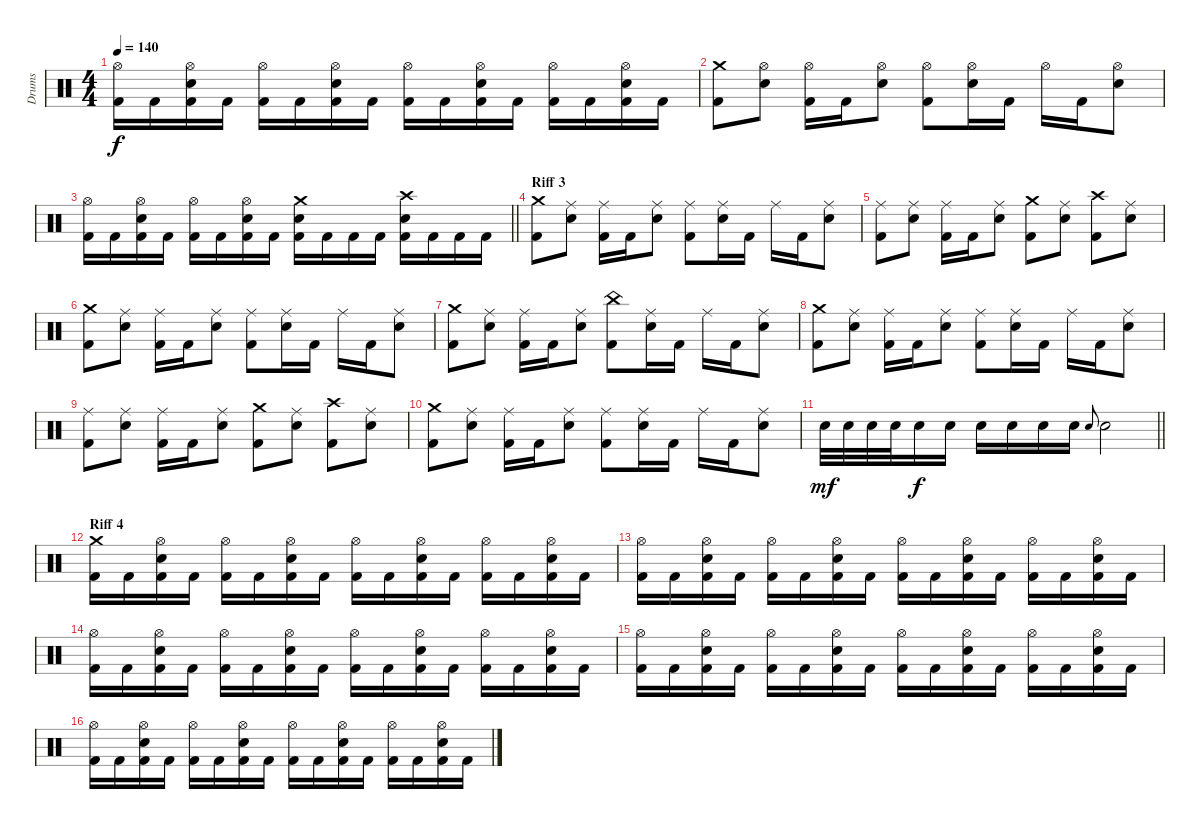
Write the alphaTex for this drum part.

\track ("Drums" "Drums") {instrument percussion}
\staff {score}
\articulation defaults
\ts (4 4)
\tempo 140
\clef neutral
\ks c
("Hi-Hat (open)" "Kick (hit) 2").16{dy f} "Kick (hit) 2".16 ("Electric Snare (hit)" "Hi-Hat (open)" "Kick (hit) 2").16 "Kick (hit) 2".16 ("Hi-Hat (open)" "Kick (hit) 2").16 "Kick (hit) 2".16 ("Kick (hit) 2" "Electric Snare (hit)" "Hi-Hat (open)").16 "Kick (hit) 2".16 ("Hi-Hat (open)" "Kick (hit) 2").16 "Kick (hit) 2".16 ("Electric Snare (hit)" "Hi-Hat (open)" "Kick (hit) 2").16 "Kick (hit) 2".16 ("Hi-Hat (open)" "Kick (hit) 2").16 "Kick (hit) 2".16 ("Kick (hit) 2" "Electric Snare (hit)" "Hi-Hat (open)").16 "Kick (hit) 2".16 |
("Crash medium (hit)" "Kick (hit) 2").8 ("Electric Snare (hit)" "Hi-Hat (open)").8 ("Hi-Hat (open)" "Kick (hit) 2").16 "Kick (hit) 2".16 ("Hi-Hat (open)" "Electric Snare (hit)").8 ("Kick (hit) 2" "Hi-Hat (open)").8 ("Electric Snare (hit)" "Hi-Hat (open)").16 "Kick (hit) 2".16 "Hi-Hat (open)".16 "Kick (hit) 2".16 ("Electric Snare (hit)" "Hi-Hat (open)").8 |
\barLineRight lightlight
("Hi-Hat (open)" "Kick (hit) 2").16 "Kick (hit) 2".16 ("Electric Snare (hit)" "Hi-Hat (open)" "Kick (hit) 2").16 "Kick (hit) 2".16 ("Hi-Hat (open)" "Kick (hit) 2").16 "Kick (hit) 2".16 ("Kick (hit) 2" "Electric Snare (hit)" "Hi-Hat (open)").16 "Kick (hit) 2".16 ("Electric Snare (hit)" "Crash medium (hit)" "Kick (hit) 2").16 "Kick (hit) 2".16 "Kick (hit) 2".16 "Kick (hit) 2".16 ("Electric Snare (hit)" "Crash high (hit)" "Kick (hit) 2").16 "Kick (hit) 2".16 "Kick (hit) 2".16 "Kick (hit) 2".16 |
\section ("" "Riff 3")
("Crash medium (hit)" "Kick (hit) 2").8 ("Ride (middle)" "Electric Snare (hit)").8 ("Kick (hit) 2" "Ride (middle)").16 "Kick (hit) 2".16 ("Ride (middle)" "Electric Snare (hit)").8 ("Kick (hit) 2" "Ride (middle)").8 ("Electric Snare (hit)" "Ride (middle)").16 "Kick (hit) 2".16 "Ride (middle)".16 "Kick (hit) 2".16 ("Electric Snare (hit)" "Ride (middle)").8 |
("Ride (middle)" "Kick (hit) 2").8 ("Ride (middle)" "Electric Snare (hit)").8 ("Kick (hit) 2" "Ride (middle)").16 "Kick (hit) 2".16 ("Ride (middle)" "Electric Snare (hit)").8 ("Kick (hit) 2" "Crash medium (hit)").8 ("Electric Snare (hit)" "Ride (middle)").8 ("Kick (hit) 2" "Crash high (hit)").8 ("Electric Snare (hit)" "Ride (middle)").8 |
("Crash medium (hit)" "Kick (hit) 2").8 ("Ride (middle)" "Electric Snare (hit)").8 ("Kick (hit) 2" "Ride (middle)").16 "Kick (hit) 2".16 ("Ride (middle)" "Electric Snare (hit)").8 ("Kick (hit) 2" "Ride (middle)").8 ("Electric Snare (hit)" "Ride (middle)").16 "Kick (hit) 2".16 "Ride (middle)".16 "Kick (hit) 2".16 ("Electric Snare (hit)" "Ride (middle)").8 |
("Crash medium (hit)" "Kick (hit) 2").8 ("Ride (middle)" "Electric Snare (hit)").8 ("Kick (hit) 2" "Ride (middle)").16 "Kick (hit) 2".16 ("Ride (middle)" "Electric Snare (hit)").8 ("Kick (hit) 2" "China (hit)").8 ("Electric Snare (hit)" "Ride (middle)").16 "Kick (hit) 2".16 "Ride (middle)".16 "Kick (hit) 2".16 ("Electric Snare (hit)" "Ride (middle)").8 |
("Crash medium (hit)" "Kick (hit) 2").8 ("Ride (middle)" "Electric Snare (hit)").8 ("Kick (hit) 2" "Ride (middle)").16 "Kick (hit) 2".16 ("Ride (middle)" "Electric Snare (hit)").8 ("Kick (hit) 2" "Ride (middle)").8 ("Electric Snare (hit)" "Ride (middle)").16 "Kick (hit) 2".16 "Ride (middle)".16 "Kick (hit) 2".16 ("Electric Snare (hit)" "Ride (middle)").8 |
("Ride (middle)" "Kick (hit) 2").8 ("Ride (middle)" "Electric Snare (hit)").8 ("Kick (hit) 2" "Ride (middle)").16 "Kick (hit) 2".16 ("Ride (middle)" "Electric Snare (hit)").8 ("Kick (hit) 2" "Crash medium (hit)").8 ("Electric Snare (hit)" "Ride (middle)").8 ("Kick (hit) 2" "Crash high (hit)").8 ("Electric Snare (hit)" "Ride (middle)").8 |
("Crash medium (hit)" "Kick (hit) 2").8 ("Ride (middle)" "Electric Snare (hit)").8 ("Kick (hit) 2" "Ride (middle)").16 "Kick (hit) 2".16 ("Ride (middle)" "Electric Snare (hit)").8 ("Kick (hit) 2" "Ride (middle)").8 ("Electric Snare (hit)" "Ride (middle)").16 "Kick (hit) 2".16 "Ride (middle)".16 "Kick (hit) 2".16 ("Electric Snare (hit)" "Ride (middle)").8 |
\barLineRight lightlight "Electric Snare (hit)".32{dy mf} "Electric Snare (hit)".32 "Electric Snare (hit)".32 "Electric Snare (hit)".32 "Electric Snare (hit)".16{dy f} "Electric Snare (hit)".16 "Electric Snare (hit)".16 "Electric Snare (hit)".16 "Electric Snare (hit)".16 "Electric Snare (hit)".16 "Electric Snare (hit)".8{gr onbeat} "Electric Snare (hit)".2
|
\section ("" "Riff 4")
("Crash medium (hit)" "Kick (hit) 2").16 "Kick (hit) 2".16 ("Electric Snare (hit)" "Hi-Hat (open)" "Kick (hit) 2").16 "Kick (hit) 2".16 ("Hi-Hat (open)" "Kick (hit) 2").16 "Kick (hit) 2".16 ("Electric Snare (hit)" "Hi-Hat (open)" "Kick (hit) 2").16 "Kick (hit) 2".16 ("Hi-Hat (open)" "Kick (hit) 2").16 "Kick (hit) 2".16 ("Electric Snare (hit)" "Hi-Hat (open)" "Kick (hit) 2").16 "Kick (hit) 2".16 ("Hi-Hat (open)" "Kick (hit) 2").16 "Kick (hit) 2".16 ("Kick (hit) 2" "Electric Snare (hit)" "Hi-Hat (open)").16 "Kick (hit) 2".16 |
("Hi-Hat (open)" "Kick (hit) 2").16 "Kick (hit) 2".16 ("Electric Snare (hit)" "Hi-Hat (open)" "Kick (hit) 2").16 "Kick (hit) 2".16 ("Hi-Hat (open)" "Kick (hit) 2").16 "Kick (hit) 2".16 ("Kick (hit) 2" "Electric Snare (hit)" "Hi-Hat (open)").16 "Kick (hit) 2".16 ("Hi-Hat (open)" "Kick (hit) 2").16 "Kick (hit) 2".16 ("Electric Snare (hit)" "Hi-Hat (open)" "Kick (hit) 2").16 "Kick (hit) 2".16 ("Hi-Hat (open)" "Kick (hit) 2").16 "Kick (hit) 2".16 ("Kick (hit) 2" "Electric Snare (hit)" "Hi-Hat (open)").16 "Kick (hit) 2".16 |
("Hi-Hat (open)" "Kick (hit) 2").16 "Kick (hit) 2".16 ("Electric Snare (hit)" "Hi-Hat (open)" "Kick (hit) 2").16 "Kick (hit) 2".16 ("Hi-Hat (open)" "Kick (hit) 2").16 "Kick (hit) 2".16 ("Kick (hit) 2" "Electric Snare (hit)" "Hi-Hat (open)").16 "Kick (hit) 2".16 ("Hi-Hat (open)" "Kick (hit) 2").16 "Kick (hit) 2".16 ("Electric Snare (hit)" "Hi-Hat (open)" "Kick (hit) 2").16 "Kick (hit) 2".16 ("Hi-Hat (open)" "Kick (hit) 2").16 "Kick (hit) 2".16 ("Kick (hit) 2" "Electric Snare (hit)" "Hi-Hat (open)").16 "Kick (hit) 2".16 |
("Hi-Hat (open)" "Kick (hit) 2").16 "Kick (hit) 2".16 ("Electric Snare (hit)" "Hi-Hat (open)" "Kick (hit) 2").16 "Kick (hit) 2".16 ("Hi-Hat (open)" "Kick (hit) 2").16 "Kick (hit) 2".16 ("Kick (hit) 2" "Electric Snare (hit)" "Hi-Hat (open)").16 "Kick (hit) 2".16 ("Hi-Hat (open)" "Kick (hit) 2").16 "Kick (hit) 2".16 ("Electric Snare (hit)" "Hi-Hat (open)" "Kick (hit) 2").16 "Kick (hit) 2".16 ("Hi-Hat (open)" "Kick (hit) 2").16 "Kick (hit) 2".16 ("Kick (hit) 2" "Electric Snare (hit)" "Hi-Hat (open)").16 "Kick (hit) 2".16 |
("Hi-Hat (open)" "Kick (hit) 2").16 "Kick (hit) 2".16 ("Electric Snare (hit)" "Hi-Hat (open)" "Kick (hit) 2").16 "Kick (hit) 2".16 ("Hi-Hat (open)" "Kick (hit) 2").16 "Kick (hit) 2".16 ("Kick (hit) 2" "Electric Snare (hit)" "Hi-Hat (open)").16 "Kick (hit) 2".16 ("Hi-Hat (open)" "Kick (hit) 2").16 "Kick (hit) 2".16 ("Electric Snare (hit)" "Hi-Hat (open)" "Kick (hit) 2").16 "Kick (hit) 2".16 ("Hi-Hat (open)" "Kick (hit) 2").16 "Kick (hit) 2".16 ("Kick (hit) 2" "Electric Snare (hit)" "Hi-Hat (open)").16 "Kick (hit) 2".16
